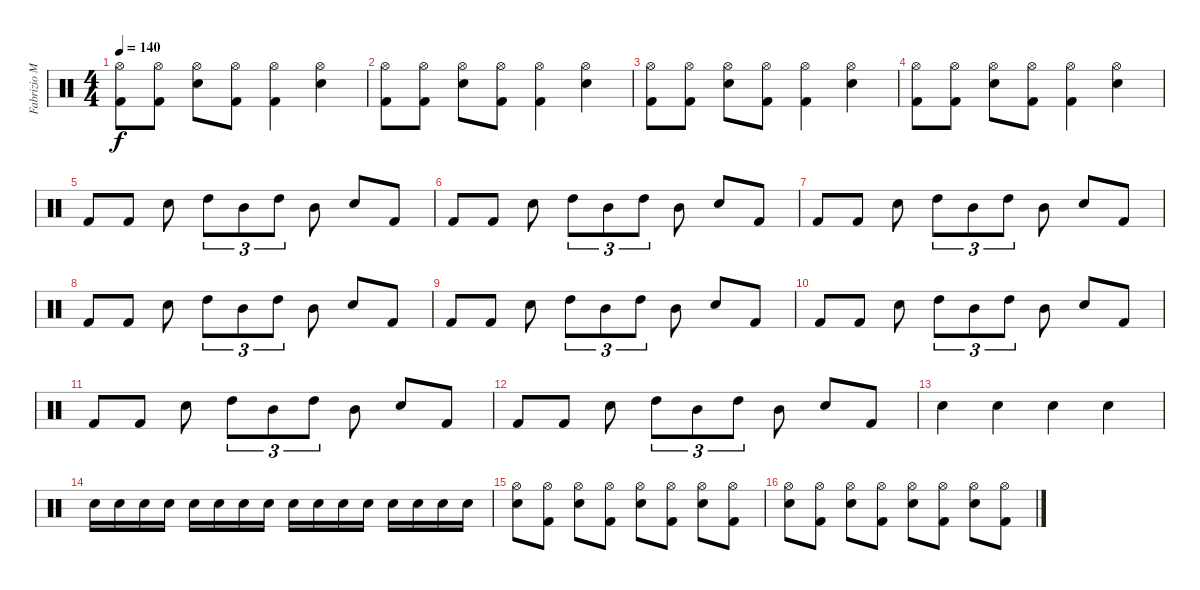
\track ("Fabrizio Moretti" "Fabrizio M") {instrument percussion}
\staff {score}
\articulation defaults
\ts (4 4)
\tempo 140
\clef neutral
\ks c
("Kick (hit) 2" "Hi-Hat (open)").8{dy f} ("Kick (hit) 2" "Hi-Hat (open)").8 ("Electric Snare (hit)" "Hi-Hat (open)").8 ("Kick (hit) 2" "Hi-Hat (open)").8 ("Kick (hit) 2" "Hi-Hat (open)").4 ("Electric Snare (hit)" "Hi-Hat (open)").4 |
("Kick (hit) 2" "Hi-Hat (open)").8 ("Kick (hit) 2" "Hi-Hat (open)").8 ("Electric Snare (hit)" "Hi-Hat (open)").8 ("Kick (hit) 2" "Hi-Hat (open)").8 ("Kick (hit) 2" "Hi-Hat (open)").4 ("Electric Snare (hit)" "Hi-Hat (open)").4 |
("Kick (hit) 2" "Hi-Hat (open)").8 ("Kick (hit) 2" "Hi-Hat (open)").8 ("Electric Snare (hit)" "Hi-Hat (open)").8 ("Kick (hit) 2" "Hi-Hat (open)").8 ("Kick (hit) 2" "Hi-Hat (open)").4 ("Electric Snare (hit)" "Hi-Hat (open)").4 |
("Kick (hit) 2" "Hi-Hat (open)").8 ("Kick (hit) 2" "Hi-Hat (open)").8 ("Electric Snare (hit)" "Hi-Hat (open)").8 ("Kick (hit) 2" "Hi-Hat (open)").8 ("Kick (hit) 2" "Hi-Hat (open)").4 ("Electric Snare (hit)" "Hi-Hat (open)").4 |
"Kick (hit) 2".8 "Kick (hit) 2".8 "Electric Snare (hit)".8 "High Tom (hit)".8{tu (3 2)} "Mid Tom (hit)".8{tu (3 2)} "High Tom (hit)".8{tu (3 2)} "Mid Tom (hit)".8 "Electric Snare (hit)".8 "Kick (hit) 2".8 |
"Kick (hit) 2".8 "Kick (hit) 2".8 "Electric Snare (hit)".8 "High Tom (hit)".8{tu (3 2)} "Mid Tom (hit)".8{tu (3 2)} "High Tom (hit)".8{tu (3 2)} "Mid Tom (hit)".8 "Electric Snare (hit)".8 "Kick (hit) 2".8 |
"Kick (hit) 2".8 "Kick (hit) 2".8 "Electric Snare (hit)".8 "High Tom (hit)".8{tu (3 2)} "Mid Tom (hit)".8{tu (3 2)} "High Tom (hit)".8{tu (3 2)} "Mid Tom (hit)".8 "Electric Snare (hit)".8 "Kick (hit) 2".8 |
"Kick (hit) 2".8 "Kick (hit) 2".8 "Electric Snare (hit)".8 "High Tom (hit)".8{tu (3 2)} "Mid Tom (hit)".8{tu (3 2)} "High Tom (hit)".8{tu (3 2)} "Mid Tom (hit)".8 "Electric Snare (hit)".8 "Kick (hit) 2".8 |
"Kick (hit) 2".8 "Kick (hit) 2".8 "Electric Snare (hit)".8 "High Tom (hit)".8{tu (3 2)} "Mid Tom (hit)".8{tu (3 2)} "High Tom (hit)".8{tu (3 2)} "Mid Tom (hit)".8 "Electric Snare (hit)".8 "Kick (hit) 2".8 |
"Kick (hit) 2".8 "Kick (hit) 2".8 "Electric Snare (hit)".8 "High Tom (hit)".8{tu (3 2)} "Mid Tom (hit)".8{tu (3 2)} "High Tom (hit)".8{tu (3 2)} "Mid Tom (hit)".8 "Electric Snare (hit)".8 "Kick (hit) 2".8 |
"Kick (hit) 2".8 "Kick (hit) 2".8 "Electric Snare (hit)".8 "High Tom (hit)".8{tu (3 2)} "Mid Tom (hit)".8{tu (3 2)} "High Tom (hit)".8{tu (3 2)} "Mid Tom (hit)".8 "Electric Snare (hit)".8 "Kick (hit) 2".8 |
"Kick (hit) 2".8 "Kick (hit) 2".8 "Electric Snare (hit)".8 "High Tom (hit)".8{tu (3 2)} "Mid Tom (hit)".8{tu (3 2)} "High Tom (hit)".8{tu (3 2)} "Mid Tom (hit)".8 "Electric Snare (hit)".8 "Kick (hit) 2".8 |
"Electric Snare (hit)".4 "Electric Snare (hit)".4 "Electric Snare (hit)".4 "Electric Snare (hit)".4 |
"Electric Snare (hit)".16 "Electric Snare (hit)".16 "Electric Snare (hit)".16 "Electric Snare (hit)".16 "Electric Snare (hit)".16 "Electric Snare (hit)".16 "Electric Snare (hit)".16 "Electric Snare (hit)".16 "Electric Snare (hit)".16 "Electric Snare (hit)".16 "Electric Snare (hit)".16 "Electric Snare (hit)".16 "Electric Snare (hit)".16 "Electric Snare (hit)".16 "Electric Snare (hit)".16 "Electric Snare (hit)".16 |
("Electric Snare (hit)" "Hi-Hat (open)").8 ("Kick (hit) 2" "Hi-Hat (open)").8 ("Electric Snare (hit)" "Hi-Hat (open)").8 ("Kick (hit) 2" "Hi-Hat (open)").8 ("Electric Snare (hit)" "Hi-Hat (open)").8 ("Kick (hit) 2" "Hi-Hat (open)").8 ("Electric Snare (hit)" "Hi-Hat (open)").8 ("Kick (hit) 2" "Hi-Hat (open)").8 |
("Electric Snare (hit)" "Hi-Hat (open)").8 ("Kick (hit) 2" "Hi-Hat (open)").8 ("Electric Snare (hit)" "Hi-Hat (open)").8 ("Kick (hit) 2" "Hi-Hat (open)").8 ("Electric Snare (hit)" "Hi-Hat (open)").8 ("Kick (hit) 2" "Hi-Hat (open)").8 ("Electric Snare (hit)" "Hi-Hat (open)").8 ("Kick (hit) 2" "Hi-Hat (open)").8
